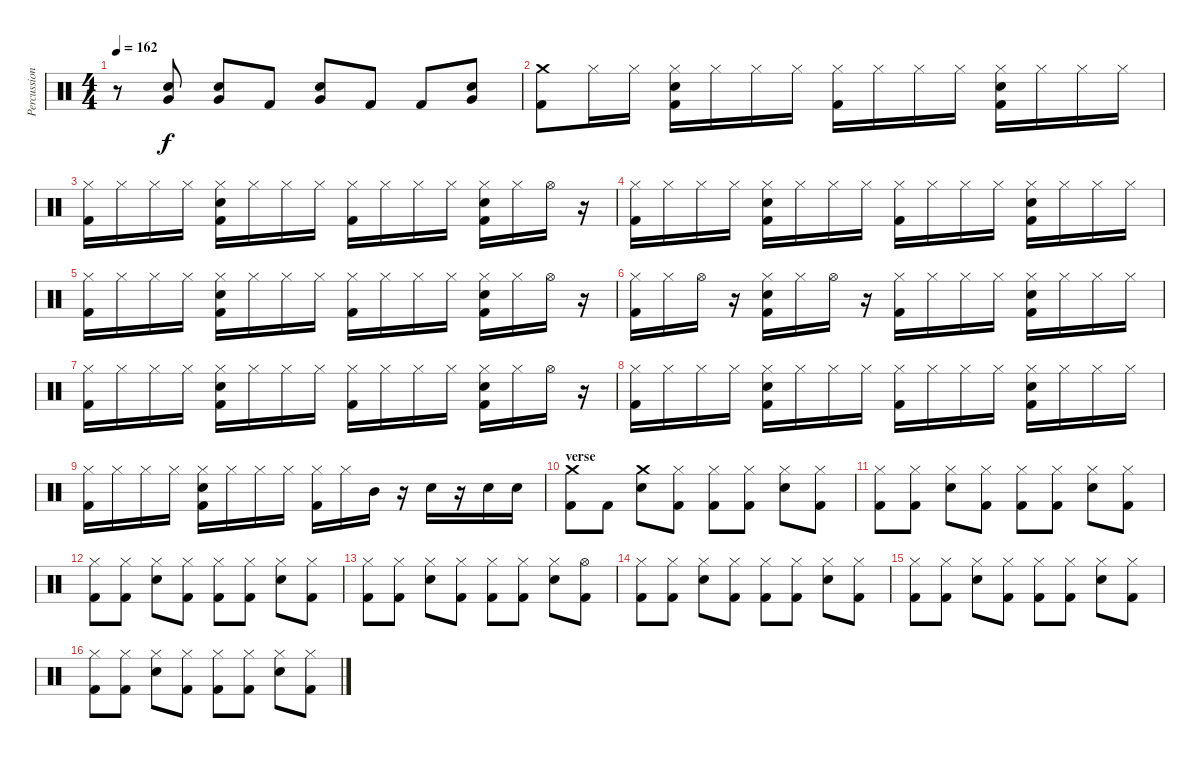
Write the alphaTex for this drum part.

\track ("Percussion" "Percussion") {instrument percussion}
\staff {score}
\articulation defaults
\ts (4 4)
\tempo 162
\clef neutral
\ks c
r.8{dy f} ("Snare (hit) 2" "Very Low Tom (hit)").8 ("Snare (hit) 2" "Very Low Tom (hit)").8 "Kick (hit) 2".8 ("Snare (hit) 2" "Very Low Tom (hit)").8 "Kick (hit) 2".8 "Kick (hit) 2".8 ("Snare (hit) 2" "Very Low Tom (hit)").8 |
("Kick (hit) 2" "Crash medium (hit)").8 "Hi-Hat (closed)".16 "Hi-Hat (closed)".16 ("Kick (hit) 2" "Snare (hit) 2" "Hi-Hat (closed)").16 "Hi-Hat (closed)".16 "Hi-Hat (closed)".16 "Hi-Hat (closed)".16 ("Kick (hit) 2" "Hi-Hat (closed)").16 "Hi-Hat (closed)".16 "Hi-Hat (closed)".16 "Hi-Hat (closed)".16 ("Kick (hit) 2" "Snare (hit) 2" "Hi-Hat (closed)").16 "Hi-Hat (closed)".16 "Hi-Hat (closed)".16 "Hi-Hat (closed)".16 |
("Kick (hit) 2" "Hi-Hat (closed)").16 "Hi-Hat (closed)".16 "Hi-Hat (closed)".16 "Hi-Hat (closed)".16 ("Kick (hit) 2" "Snare (hit) 2" "Hi-Hat (closed)").16 "Hi-Hat (closed)".16 "Hi-Hat (closed)".16 "Hi-Hat (closed)".16 ("Kick (hit) 2" "Hi-Hat (closed)").16 "Hi-Hat (closed)".16 "Hi-Hat (closed)".16 "Hi-Hat (closed)".16 ("Kick (hit) 2" "Snare (hit) 2" "Hi-Hat (closed)").16 "Hi-Hat (closed)".16 "Hi-Hat (open)".16 r.16 |
("Kick (hit) 2" "Hi-Hat (closed)").16 "Hi-Hat (closed)".16 "Hi-Hat (closed)".16 "Hi-Hat (closed)".16 ("Kick (hit) 2" "Snare (hit) 2" "Hi-Hat (closed)").16 "Hi-Hat (closed)".16 "Hi-Hat (closed)".16 "Hi-Hat (closed)".16 ("Kick (hit) 2" "Hi-Hat (closed)").16 "Hi-Hat (closed)".16 "Hi-Hat (closed)".16 "Hi-Hat (closed)".16 ("Kick (hit) 2" "Snare (hit) 2" "Hi-Hat (closed)").16 "Hi-Hat (closed)".16 "Hi-Hat (closed)".16 "Hi-Hat (closed)".16 |
("Kick (hit) 2" "Hi-Hat (closed)").16 "Hi-Hat (closed)".16 "Hi-Hat (closed)".16 "Hi-Hat (closed)".16 ("Kick (hit) 2" "Snare (hit) 2" "Hi-Hat (closed)").16 "Hi-Hat (closed)".16 "Hi-Hat (closed)".16 "Hi-Hat (closed)".16 ("Kick (hit) 2" "Hi-Hat (closed)").16 "Hi-Hat (closed)".16 "Hi-Hat (closed)".16 "Hi-Hat (closed)".16 ("Kick (hit) 2" "Snare (hit) 2" "Hi-Hat (closed)").16 "Hi-Hat (closed)".16 "Hi-Hat (open)".16 r.16 |
("Kick (hit) 2" "Hi-Hat (closed)").16 "Hi-Hat (closed)".16 "Hi-Hat (open)".16 r.16 ("Kick (hit) 2" "Snare (hit) 2" "Hi-Hat (closed)").16 "Hi-Hat (closed)".16 "Hi-Hat (open)".16 r.16 ("Kick (hit) 2" "Hi-Hat (closed)").16 "Hi-Hat (closed)".16 "Hi-Hat (closed)".16 "Hi-Hat (closed)".16 ("Kick (hit) 2" "Snare (hit) 2" "Hi-Hat (closed)").16 "Hi-Hat (closed)".16 "Hi-Hat (closed)".16 "Hi-Hat (closed)".16 |
("Kick (hit) 2" "Hi-Hat (closed)").16 "Hi-Hat (closed)".16 "Hi-Hat (closed)".16 "Hi-Hat (closed)".16 ("Kick (hit) 2" "Snare (hit) 2" "Hi-Hat (closed)").16 "Hi-Hat (closed)".16 "Hi-Hat (closed)".16 "Hi-Hat (closed)".16 ("Kick (hit) 2" "Hi-Hat (closed)").16 "Hi-Hat (closed)".16 "Hi-Hat (closed)".16 "Hi-Hat (closed)".16 ("Kick (hit) 2" "Snare (hit) 2" "Hi-Hat (closed)").16 "Hi-Hat (closed)".16 "Hi-Hat (open)".16 r.16 |
("Kick (hit) 2" "Hi-Hat (closed)").16 "Hi-Hat (closed)".16 "Hi-Hat (closed)".16 "Hi-Hat (closed)".16 ("Kick (hit) 2" "Snare (hit) 2" "Hi-Hat (closed)").16 "Hi-Hat (closed)".16 "Hi-Hat (closed)".16 "Hi-Hat (closed)".16 ("Kick (hit) 2" "Hi-Hat (closed)").16 "Hi-Hat (closed)".16 "Hi-Hat (closed)".16 "Hi-Hat (closed)".16 ("Kick (hit) 2" "Snare (hit) 2" "Hi-Hat (closed)").16 "Hi-Hat (closed)".16 "Hi-Hat (closed)".16 "Hi-Hat (closed)".16 |
("Kick (hit) 2" "Hi-Hat (closed)").16 "Hi-Hat (closed)".16 "Hi-Hat (closed)".16 "Hi-Hat (closed)".16 ("Kick (hit) 2" "Snare (hit) 2" "Hi-Hat (closed)").16 "Hi-Hat (closed)".16 "Hi-Hat (closed)".16 "Hi-Hat (closed)".16 ("Kick (hit) 2" "Hi-Hat (closed)").16 "Hi-Hat (closed)".16 "Mid Tom (hit)".16 r.16 "Snare (hit) 2".16 r.16 "Snare (hit) 2".16 "Snare (hit) 2".16 |
\section ("" "verse")
("Kick (hit) 2" "Crash medium (hit)").8 "Kick (hit) 2".8 ("Snare (hit) 2" "Crash medium (hit)").8 ("Kick (hit) 2" "Hi-Hat (closed)").8 ("Kick (hit) 2" "Hi-Hat (closed)").8 ("Kick (hit) 2" "Hi-Hat (closed)").8 ("Snare (hit) 2" "Hi-Hat (closed)").8 ("Kick (hit) 2" "Hi-Hat (closed)").8 |
("Kick (hit) 2" "Hi-Hat (closed)").8 ("Kick (hit) 2" "Hi-Hat (closed)").8 ("Snare (hit) 2" "Hi-Hat (closed)").8 ("Kick (hit) 2" "Hi-Hat (closed)").8 ("Kick (hit) 2" "Hi-Hat (closed)").8 ("Kick (hit) 2" "Hi-Hat (closed)").8 ("Snare (hit) 2" "Hi-Hat (closed)").8 ("Kick (hit) 2" "Hi-Hat (closed)").8 |
("Kick (hit) 2" "Hi-Hat (closed)").8 ("Kick (hit) 2" "Hi-Hat (closed)").8 ("Snare (hit) 2" "Hi-Hat (closed)").8 ("Kick (hit) 2" "Hi-Hat (closed)").8 ("Kick (hit) 2" "Hi-Hat (closed)").8 ("Kick (hit) 2" "Hi-Hat (closed)").8 ("Snare (hit) 2" "Hi-Hat (closed)").8 ("Kick (hit) 2" "Hi-Hat (closed)").8 |
("Kick (hit) 2" "Hi-Hat (closed)").8 ("Kick (hit) 2" "Hi-Hat (closed)").8 ("Snare (hit) 2" "Hi-Hat (closed)").8 ("Kick (hit) 2" "Hi-Hat (closed)").8 ("Kick (hit) 2" "Hi-Hat (closed)").8 ("Kick (hit) 2" "Hi-Hat (closed)").8 ("Snare (hit) 2" "Hi-Hat (closed)").8 ("Kick (hit) 2" "Hi-Hat (open)").8 |
("Kick (hit) 2" "Hi-Hat (closed)").8 ("Kick (hit) 2" "Hi-Hat (closed)").8 ("Snare (hit) 2" "Hi-Hat (closed)").8 ("Kick (hit) 2" "Hi-Hat (closed)").8 ("Kick (hit) 2" "Hi-Hat (closed)").8 ("Kick (hit) 2" "Hi-Hat (closed)").8 ("Snare (hit) 2" "Hi-Hat (closed)").8 ("Kick (hit) 2" "Hi-Hat (closed)").8 |
("Kick (hit) 2" "Hi-Hat (closed)").8 ("Kick (hit) 2" "Hi-Hat (closed)").8 ("Snare (hit) 2" "Hi-Hat (closed)").8 ("Kick (hit) 2" "Hi-Hat (closed)").8 ("Kick (hit) 2" "Hi-Hat (closed)").8 ("Kick (hit) 2" "Hi-Hat (closed)").8 ("Snare (hit) 2" "Hi-Hat (closed)").8 ("Kick (hit) 2" "Hi-Hat (closed)").8 |
("Kick (hit) 2" "Hi-Hat (closed)").8 ("Kick (hit) 2" "Hi-Hat (closed)").8 ("Snare (hit) 2" "Hi-Hat (closed)").8 ("Kick (hit) 2" "Hi-Hat (closed)").8 ("Kick (hit) 2" "Hi-Hat (closed)").8 ("Kick (hit) 2" "Hi-Hat (closed)").8 ("Snare (hit) 2" "Hi-Hat (closed)").8 ("Kick (hit) 2" "Hi-Hat (closed)").8
